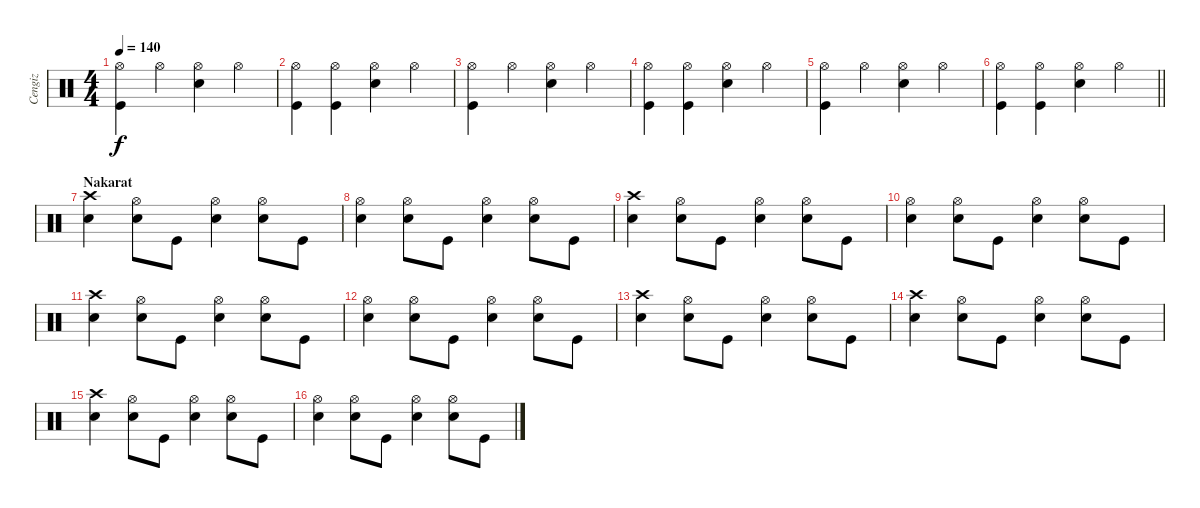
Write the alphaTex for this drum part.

\track ("Cengiz" "Cengiz") {instrument percussion}
\staff {score}
\articulation defaults
\ts (4 4)
\tempo 140
\clef neutral
\ks c
("Hi-Hat (open)" "Kick (hit)").4{dy f} "Hi-Hat (open)".4 ("Hi-Hat (open)" "Electric Snare (hit)").4 "Hi-Hat (open)".4 |
("Hi-Hat (open)" "Kick (hit)").4 ("Hi-Hat (open)" "Kick (hit)").4 ("Hi-Hat (open)" "Electric Snare (hit)").4 "Hi-Hat (open)".4 |
("Hi-Hat (open)" "Kick (hit)").4 "Hi-Hat (open)".4 ("Hi-Hat (open)" "Electric Snare (hit)").4 "Hi-Hat (open)".4 |
("Hi-Hat (open)" "Kick (hit)").4 ("Hi-Hat (open)" "Kick (hit)").4 ("Hi-Hat (open)" "Electric Snare (hit)").4 "Hi-Hat (open)".4 |
("Hi-Hat (open)" "Kick (hit)").4 "Hi-Hat (open)".4 ("Hi-Hat (open)" "Electric Snare (hit)").4 "Hi-Hat (open)".4 |
\barLineRight lightlight
("Hi-Hat (open)" "Kick (hit)").4 ("Hi-Hat (open)" "Kick (hit)").4 ("Hi-Hat (open)" "Electric Snare (hit)").4 "Hi-Hat (open)".4 |
\section ("" "Nakarat")
("Crash high (hit)" "Electric Snare (hit)").4 ("Hi-Hat (open)" "Electric Snare (hit)").8 "Kick (hit)".8 ("Hi-Hat (open)" "Electric Snare (hit)").4 ("Hi-Hat (open)" "Electric Snare (hit)").8 "Kick (hit)".8 |
("Hi-Hat (open)" "Electric Snare (hit)").4 ("Hi-Hat (open)" "Electric Snare (hit)").8 "Kick (hit)".8 ("Hi-Hat (open)" "Electric Snare (hit)").4 ("Hi-Hat (open)" "Electric Snare (hit)").8 "Kick (hit)".8 |
("Crash high (hit)" "Electric Snare (hit)").4 ("Hi-Hat (open)" "Electric Snare (hit)").8 "Kick (hit)".8 ("Hi-Hat (open)" "Electric Snare (hit)").4 ("Hi-Hat (open)" "Electric Snare (hit)").8 "Kick (hit)".8 |
("Hi-Hat (open)" "Electric Snare (hit)").4 ("Hi-Hat (open)" "Electric Snare (hit)").8 "Kick (hit)".8 ("Hi-Hat (open)" "Electric Snare (hit)").4 ("Hi-Hat (open)" "Electric Snare (hit)").8 "Kick (hit)".8 |
("Crash high (hit)" "Electric Snare (hit)").4 ("Hi-Hat (open)" "Electric Snare (hit)").8 "Kick (hit)".8 ("Hi-Hat (open)" "Electric Snare (hit)").4 ("Hi-Hat (open)" "Electric Snare (hit)").8 "Kick (hit)".8 |
("Hi-Hat (open)" "Electric Snare (hit)").4 ("Hi-Hat (open)" "Electric Snare (hit)").8 "Kick (hit)".8 ("Hi-Hat (open)" "Electric Snare (hit)").4 ("Hi-Hat (open)" "Electric Snare (hit)").8 "Kick (hit)".8 |
("Crash high (hit)" "Electric Snare (hit)").4 ("Hi-Hat (open)" "Electric Snare (hit)").8 "Kick (hit)".8 ("Hi-Hat (open)" "Electric Snare (hit)").4 ("Hi-Hat (open)" "Electric Snare (hit)").8 "Kick (hit)".8 |
("Crash high (hit)" "Electric Snare (hit)").4 ("Hi-Hat (open)" "Electric Snare (hit)").8 "Kick (hit)".8 ("Hi-Hat (open)" "Electric Snare (hit)").4 ("Hi-Hat (open)" "Electric Snare (hit)").8 "Kick (hit)".8 |
("Crash high (hit)" "Electric Snare (hit)").4 ("Hi-Hat (open)" "Electric Snare (hit)").8 "Kick (hit)".8 ("Hi-Hat (open)" "Electric Snare (hit)").4 ("Hi-Hat (open)" "Electric Snare (hit)").8 "Kick (hit)".8 |
("Hi-Hat (open)" "Electric Snare (hit)").4 ("Hi-Hat (open)" "Electric Snare (hit)").8 "Kick (hit)".8 ("Hi-Hat (open)" "Electric Snare (hit)").4 ("Hi-Hat (open)" "Electric Snare (hit)").8 "Kick (hit)".8
